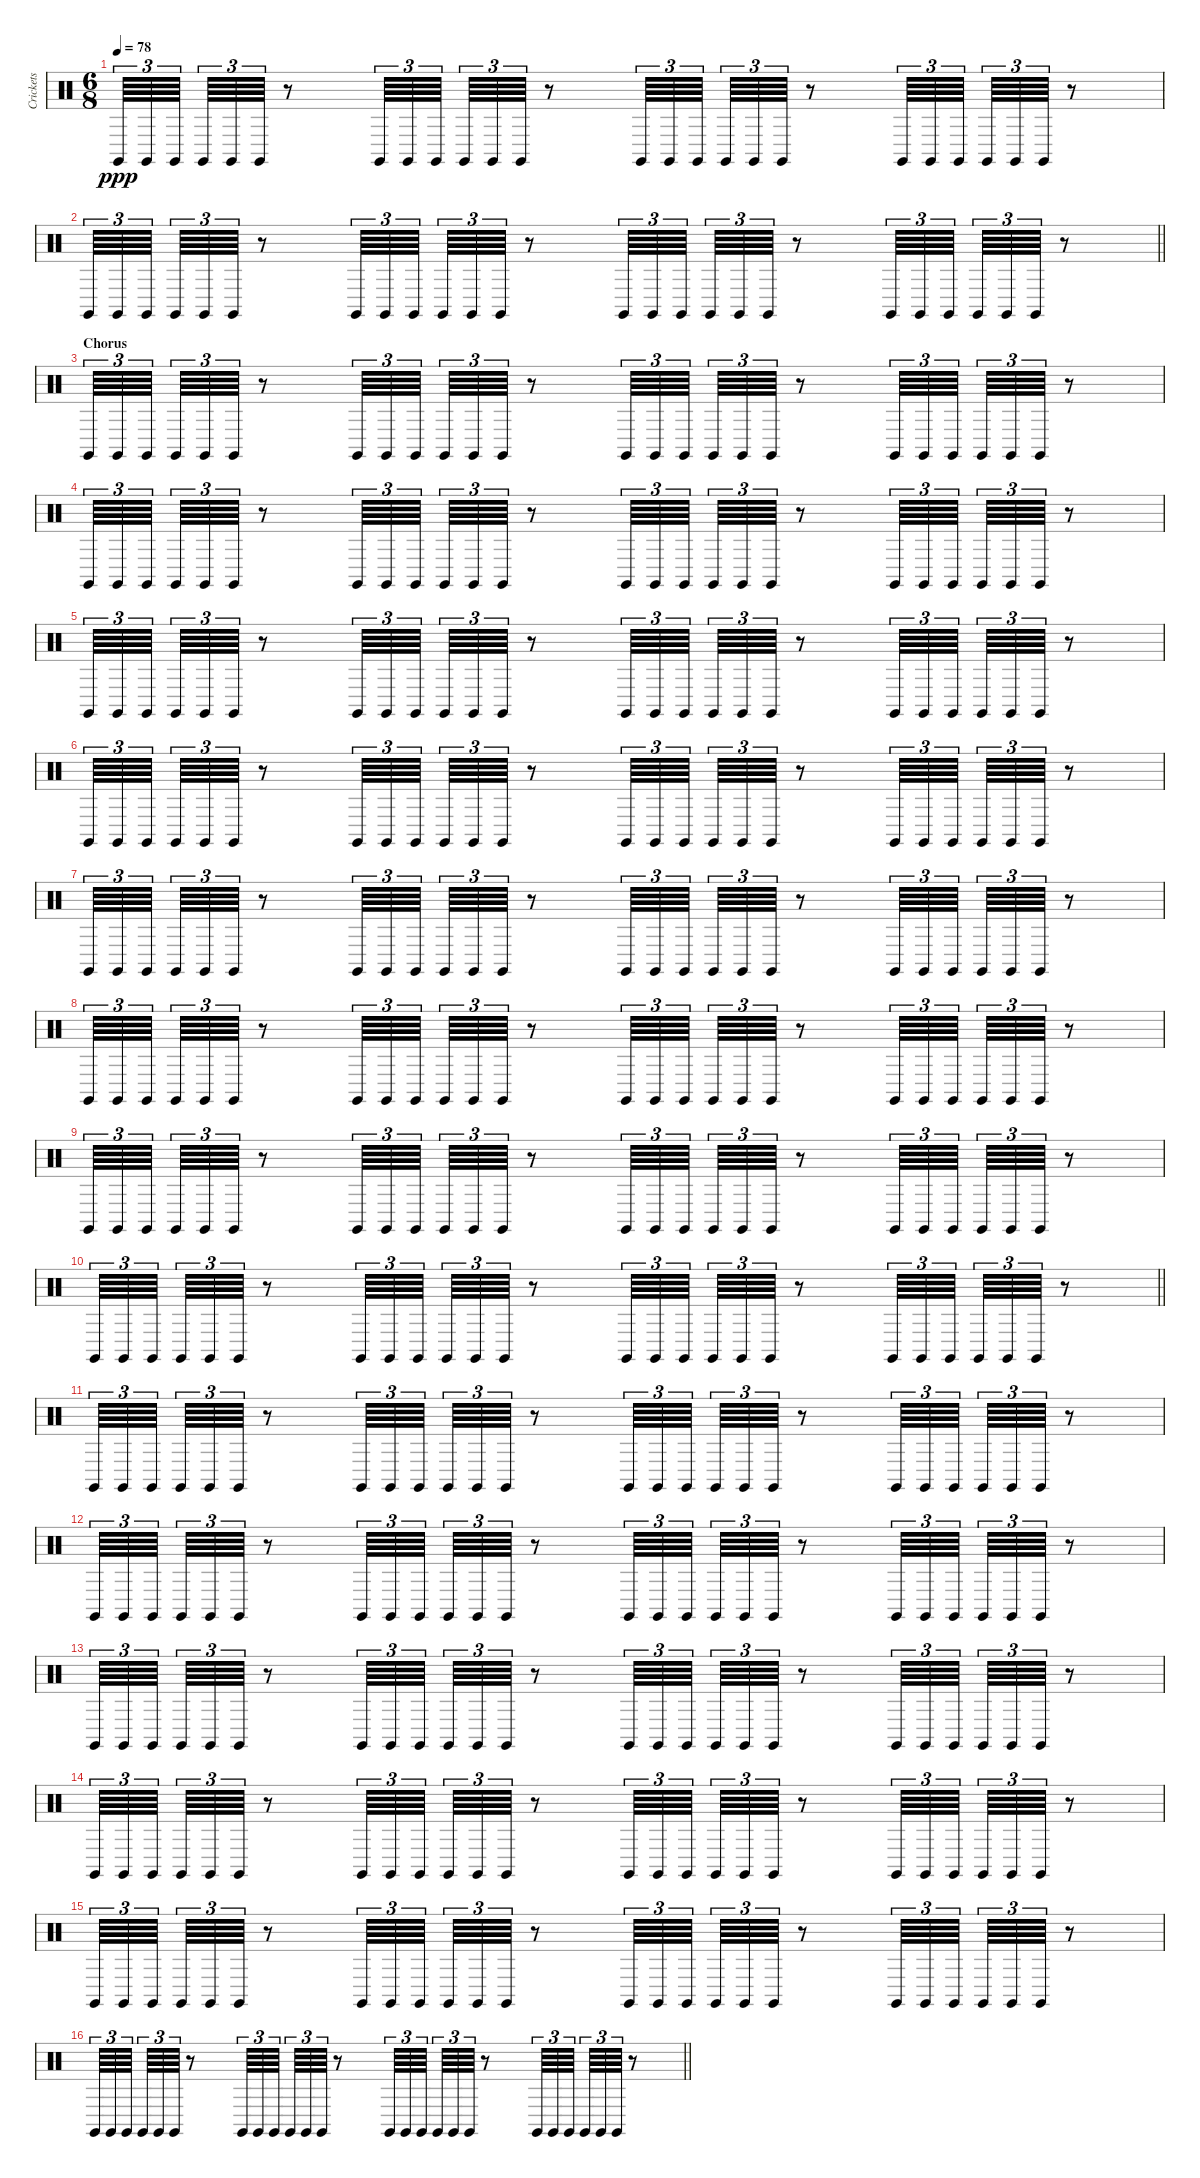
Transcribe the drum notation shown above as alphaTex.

\track ("Crickets" "Crickets") {instrument percussion}
\staff {score}
\articulation defaults
\ts (6 8)
\tempo 78
\clef neutral
\ks c "Claves (hit)".64{tu (3 2) dy ppp} "Claves (hit)".64{tu (3 2)} "Claves (hit)".64{tu (3 2) beam splitsecondary} "Claves (hit)".64{tu (3 2)} "Claves (hit)".64{tu (3 2)} "Claves (hit)".64{tu (3 2)}
r.8 "Claves (hit)".64{tu (3 2)} "Claves (hit)".64{tu (3 2)} "Claves (hit)".64{tu (3 2) beam splitsecondary} "Claves (hit)".64{tu (3 2)} "Claves (hit)".64{tu (3 2)} "Claves (hit)".64{tu (3 2)} r.8 "Claves (hit)".64{tu (3 2)} "Claves (hit)".64{tu (3 2)} "Claves (hit)".64{tu (3 2) beam splitsecondary} "Claves (hit)".64{tu (3 2)} "Claves (hit)".64{tu (3 2)} "Claves (hit)".64{tu (3 2)} r.8 "Claves (hit)".64{tu (3 2)} "Claves (hit)".64{tu (3 2)} "Claves (hit)".64{tu (3 2) beam splitsecondary} "Claves (hit)".64{tu (3 2)} "Claves (hit)".64{tu (3 2)} "Claves (hit)".64{tu (3 2)} r.8 |
\barLineRight lightlight "Claves (hit)".64{tu (3 2)} "Claves (hit)".64{tu (3 2)} "Claves (hit)".64{tu (3 2) beam splitsecondary} "Claves (hit)".64{tu (3 2)} "Claves (hit)".64{tu (3 2)} "Claves (hit)".64{tu (3 2)}
r.8 "Claves (hit)".64{tu (3 2)} "Claves (hit)".64{tu (3 2)} "Claves (hit)".64{tu (3 2) beam splitsecondary} "Claves (hit)".64{tu (3 2)} "Claves (hit)".64{tu (3 2)} "Claves (hit)".64{tu (3 2)} r.8 "Claves (hit)".64{tu (3 2)} "Claves (hit)".64{tu (3 2)} "Claves (hit)".64{tu (3 2) beam splitsecondary} "Claves (hit)".64{tu (3 2)} "Claves (hit)".64{tu (3 2)} "Claves (hit)".64{tu (3 2)} r.8 "Claves (hit)".64{tu (3 2)} "Claves (hit)".64{tu (3 2)} "Claves (hit)".64{tu (3 2) beam splitsecondary} "Claves (hit)".64{tu (3 2)} "Claves (hit)".64{tu (3 2)} "Claves (hit)".64{tu (3 2)} r.8 |
\section ("" "Chorus")
"Claves (hit)".64{tu (3 2)} "Claves (hit)".64{tu (3 2)} "Claves (hit)".64{tu (3 2) beam splitsecondary} "Claves (hit)".64{tu (3 2)} "Claves (hit)".64{tu (3 2)} "Claves (hit)".64{tu (3 2)} r.8 "Claves (hit)".64{tu (3 2)} "Claves (hit)".64{tu (3 2)} "Claves (hit)".64{tu (3 2) beam splitsecondary} "Claves (hit)".64{tu (3 2)} "Claves (hit)".64{tu (3 2)} "Claves (hit)".64{tu (3 2)} r.8 "Claves (hit)".64{tu (3 2)} "Claves (hit)".64{tu (3 2)} "Claves (hit)".64{tu (3 2) beam splitsecondary} "Claves (hit)".64{tu (3 2)} "Claves (hit)".64{tu (3 2)} "Claves (hit)".64{tu (3 2)} r.8 "Claves (hit)".64{tu (3 2)} "Claves (hit)".64{tu (3 2)} "Claves (hit)".64{tu (3 2) beam splitsecondary} "Claves (hit)".64{tu (3 2)} "Claves (hit)".64{tu (3 2)} "Claves (hit)".64{tu (3 2)} r.8 |
"Claves (hit)".64{tu (3 2)} "Claves (hit)".64{tu (3 2)} "Claves (hit)".64{tu (3 2) beam splitsecondary} "Claves (hit)".64{tu (3 2)} "Claves (hit)".64{tu (3 2)} "Claves (hit)".64{tu (3 2)} r.8 "Claves (hit)".64{tu (3 2)} "Claves (hit)".64{tu (3 2)} "Claves (hit)".64{tu (3 2) beam splitsecondary} "Claves (hit)".64{tu (3 2)} "Claves (hit)".64{tu (3 2)} "Claves (hit)".64{tu (3 2)} r.8 "Claves (hit)".64{tu (3 2)} "Claves (hit)".64{tu (3 2)} "Claves (hit)".64{tu (3 2) beam splitsecondary} "Claves (hit)".64{tu (3 2)} "Claves (hit)".64{tu (3 2)} "Claves (hit)".64{tu (3 2)} r.8 "Claves (hit)".64{tu (3 2)} "Claves (hit)".64{tu (3 2)} "Claves (hit)".64{tu (3 2) beam splitsecondary} "Claves (hit)".64{tu (3 2)} "Claves (hit)".64{tu (3 2)} "Claves (hit)".64{tu (3 2)} r.8 |
"Claves (hit)".64{tu (3 2)} "Claves (hit)".64{tu (3 2)} "Claves (hit)".64{tu (3 2) beam splitsecondary} "Claves (hit)".64{tu (3 2)} "Claves (hit)".64{tu (3 2)} "Claves (hit)".64{tu (3 2)} r.8 "Claves (hit)".64{tu (3 2)} "Claves (hit)".64{tu (3 2)} "Claves (hit)".64{tu (3 2) beam splitsecondary} "Claves (hit)".64{tu (3 2)} "Claves (hit)".64{tu (3 2)} "Claves (hit)".64{tu (3 2)} r.8 "Claves (hit)".64{tu (3 2)} "Claves (hit)".64{tu (3 2)} "Claves (hit)".64{tu (3 2) beam splitsecondary} "Claves (hit)".64{tu (3 2)} "Claves (hit)".64{tu (3 2)} "Claves (hit)".64{tu (3 2)} r.8 "Claves (hit)".64{tu (3 2)} "Claves (hit)".64{tu (3 2)} "Claves (hit)".64{tu (3 2) beam splitsecondary} "Claves (hit)".64{tu (3 2)} "Claves (hit)".64{tu (3 2)} "Claves (hit)".64{tu (3 2)} r.8 |
"Claves (hit)".64{tu (3 2)} "Claves (hit)".64{tu (3 2)} "Claves (hit)".64{tu (3 2) beam splitsecondary} "Claves (hit)".64{tu (3 2)} "Claves (hit)".64{tu (3 2)} "Claves (hit)".64{tu (3 2)} r.8 "Claves (hit)".64{tu (3 2)} "Claves (hit)".64{tu (3 2)} "Claves (hit)".64{tu (3 2) beam splitsecondary} "Claves (hit)".64{tu (3 2)} "Claves (hit)".64{tu (3 2)} "Claves (hit)".64{tu (3 2)} r.8 "Claves (hit)".64{tu (3 2)} "Claves (hit)".64{tu (3 2)} "Claves (hit)".64{tu (3 2) beam splitsecondary} "Claves (hit)".64{tu (3 2)} "Claves (hit)".64{tu (3 2)} "Claves (hit)".64{tu (3 2)} r.8 "Claves (hit)".64{tu (3 2)} "Claves (hit)".64{tu (3 2)} "Claves (hit)".64{tu (3 2) beam splitsecondary} "Claves (hit)".64{tu (3 2)} "Claves (hit)".64{tu (3 2)} "Claves (hit)".64{tu (3 2)} r.8 |
"Claves (hit)".64{tu (3 2)} "Claves (hit)".64{tu (3 2)} "Claves (hit)".64{tu (3 2) beam splitsecondary} "Claves (hit)".64{tu (3 2)} "Claves (hit)".64{tu (3 2)} "Claves (hit)".64{tu (3 2)} r.8 "Claves (hit)".64{tu (3 2)} "Claves (hit)".64{tu (3 2)} "Claves (hit)".64{tu (3 2) beam splitsecondary} "Claves (hit)".64{tu (3 2)} "Claves (hit)".64{tu (3 2)} "Claves (hit)".64{tu (3 2)} r.8 "Claves (hit)".64{tu (3 2)} "Claves (hit)".64{tu (3 2)} "Claves (hit)".64{tu (3 2) beam splitsecondary} "Claves (hit)".64{tu (3 2)} "Claves (hit)".64{tu (3 2)} "Claves (hit)".64{tu (3 2)} r.8 "Claves (hit)".64{tu (3 2)} "Claves (hit)".64{tu (3 2)} "Claves (hit)".64{tu (3 2) beam splitsecondary} "Claves (hit)".64{tu (3 2)} "Claves (hit)".64{tu (3 2)} "Claves (hit)".64{tu (3 2)} r.8 |
"Claves (hit)".64{tu (3 2)} "Claves (hit)".64{tu (3 2)} "Claves (hit)".64{tu (3 2) beam splitsecondary} "Claves (hit)".64{tu (3 2)} "Claves (hit)".64{tu (3 2)} "Claves (hit)".64{tu (3 2)} r.8 "Claves (hit)".64{tu (3 2)} "Claves (hit)".64{tu (3 2)} "Claves (hit)".64{tu (3 2) beam splitsecondary} "Claves (hit)".64{tu (3 2)} "Claves (hit)".64{tu (3 2)} "Claves (hit)".64{tu (3 2)} r.8 "Claves (hit)".64{tu (3 2)} "Claves (hit)".64{tu (3 2)} "Claves (hit)".64{tu (3 2) beam splitsecondary} "Claves (hit)".64{tu (3 2)} "Claves (hit)".64{tu (3 2)} "Claves (hit)".64{tu (3 2)} r.8 "Claves (hit)".64{tu (3 2)} "Claves (hit)".64{tu (3 2)} "Claves (hit)".64{tu (3 2) beam splitsecondary} "Claves (hit)".64{tu (3 2)} "Claves (hit)".64{tu (3 2)} "Claves (hit)".64{tu (3 2)} r.8 |
"Claves (hit)".64{tu (3 2)} "Claves (hit)".64{tu (3 2)} "Claves (hit)".64{tu (3 2) beam splitsecondary} "Claves (hit)".64{tu (3 2)} "Claves (hit)".64{tu (3 2)} "Claves (hit)".64{tu (3 2)} r.8 "Claves (hit)".64{tu (3 2)} "Claves (hit)".64{tu (3 2)} "Claves (hit)".64{tu (3 2) beam splitsecondary} "Claves (hit)".64{tu (3 2)} "Claves (hit)".64{tu (3 2)} "Claves (hit)".64{tu (3 2)} r.8 "Claves (hit)".64{tu (3 2)} "Claves (hit)".64{tu (3 2)} "Claves (hit)".64{tu (3 2) beam splitsecondary} "Claves (hit)".64{tu (3 2)} "Claves (hit)".64{tu (3 2)} "Claves (hit)".64{tu (3 2)} r.8 "Claves (hit)".64{tu (3 2)} "Claves (hit)".64{tu (3 2)} "Claves (hit)".64{tu (3 2) beam splitsecondary} "Claves (hit)".64{tu (3 2)} "Claves (hit)".64{tu (3 2)} "Claves (hit)".64{tu (3 2)} r.8 |
\barLineRight lightlight "Claves (hit)".64{tu (3 2)} "Claves (hit)".64{tu (3 2)} "Claves (hit)".64{tu (3 2) beam splitsecondary} "Claves (hit)".64{tu (3 2)} "Claves (hit)".64{tu (3 2)} "Claves (hit)".64{tu (3 2)}
r.8 "Claves (hit)".64{tu (3 2)} "Claves (hit)".64{tu (3 2)} "Claves (hit)".64{tu (3 2) beam splitsecondary} "Claves (hit)".64{tu (3 2)} "Claves (hit)".64{tu (3 2)} "Claves (hit)".64{tu (3 2)} r.8 "Claves (hit)".64{tu (3 2)} "Claves (hit)".64{tu (3 2)} "Claves (hit)".64{tu (3 2) beam splitsecondary} "Claves (hit)".64{tu (3 2)} "Claves (hit)".64{tu (3 2)} "Claves (hit)".64{tu (3 2)} r.8 "Claves (hit)".64{tu (3 2)} "Claves (hit)".64{tu (3 2)} "Claves (hit)".64{tu (3 2) beam splitsecondary} "Claves (hit)".64{tu (3 2)} "Claves (hit)".64{tu (3 2)} "Claves (hit)".64{tu (3 2)} r.8 |
"Claves (hit)".64{tu (3 2)} "Claves (hit)".64{tu (3 2)} "Claves (hit)".64{tu (3 2) beam splitsecondary} "Claves (hit)".64{tu (3 2)} "Claves (hit)".64{tu (3 2)} "Claves (hit)".64{tu (3 2)} r.8 "Claves (hit)".64{tu (3 2)} "Claves (hit)".64{tu (3 2)} "Claves (hit)".64{tu (3 2) beam splitsecondary} "Claves (hit)".64{tu (3 2)} "Claves (hit)".64{tu (3 2)} "Claves (hit)".64{tu (3 2)} r.8 "Claves (hit)".64{tu (3 2)} "Claves (hit)".64{tu (3 2)} "Claves (hit)".64{tu (3 2) beam splitsecondary} "Claves (hit)".64{tu (3 2)} "Claves (hit)".64{tu (3 2)} "Claves (hit)".64{tu (3 2)} r.8 "Claves (hit)".64{tu (3 2)} "Claves (hit)".64{tu (3 2)} "Claves (hit)".64{tu (3 2) beam splitsecondary} "Claves (hit)".64{tu (3 2)} "Claves (hit)".64{tu (3 2)} "Claves (hit)".64{tu (3 2)} r.8 |
"Claves (hit)".64{tu (3 2)} "Claves (hit)".64{tu (3 2)} "Claves (hit)".64{tu (3 2) beam splitsecondary} "Claves (hit)".64{tu (3 2)} "Claves (hit)".64{tu (3 2)} "Claves (hit)".64{tu (3 2)} r.8 "Claves (hit)".64{tu (3 2)} "Claves (hit)".64{tu (3 2)} "Claves (hit)".64{tu (3 2) beam splitsecondary} "Claves (hit)".64{tu (3 2)} "Claves (hit)".64{tu (3 2)} "Claves (hit)".64{tu (3 2)} r.8 "Claves (hit)".64{tu (3 2)} "Claves (hit)".64{tu (3 2)} "Claves (hit)".64{tu (3 2) beam splitsecondary} "Claves (hit)".64{tu (3 2)} "Claves (hit)".64{tu (3 2)} "Claves (hit)".64{tu (3 2)} r.8 "Claves (hit)".64{tu (3 2)} "Claves (hit)".64{tu (3 2)} "Claves (hit)".64{tu (3 2) beam splitsecondary} "Claves (hit)".64{tu (3 2)} "Claves (hit)".64{tu (3 2)} "Claves (hit)".64{tu (3 2)} r.8 |
"Claves (hit)".64{tu (3 2)} "Claves (hit)".64{tu (3 2)} "Claves (hit)".64{tu (3 2) beam splitsecondary} "Claves (hit)".64{tu (3 2)} "Claves (hit)".64{tu (3 2)} "Claves (hit)".64{tu (3 2)} r.8 "Claves (hit)".64{tu (3 2)} "Claves (hit)".64{tu (3 2)} "Claves (hit)".64{tu (3 2) beam splitsecondary} "Claves (hit)".64{tu (3 2)} "Claves (hit)".64{tu (3 2)} "Claves (hit)".64{tu (3 2)} r.8 "Claves (hit)".64{tu (3 2)} "Claves (hit)".64{tu (3 2)} "Claves (hit)".64{tu (3 2) beam splitsecondary} "Claves (hit)".64{tu (3 2)} "Claves (hit)".64{tu (3 2)} "Claves (hit)".64{tu (3 2)} r.8 "Claves (hit)".64{tu (3 2)} "Claves (hit)".64{tu (3 2)} "Claves (hit)".64{tu (3 2) beam splitsecondary} "Claves (hit)".64{tu (3 2)} "Claves (hit)".64{tu (3 2)} "Claves (hit)".64{tu (3 2)} r.8 |
"Claves (hit)".64{tu (3 2)} "Claves (hit)".64{tu (3 2)} "Claves (hit)".64{tu (3 2) beam splitsecondary} "Claves (hit)".64{tu (3 2)} "Claves (hit)".64{tu (3 2)} "Claves (hit)".64{tu (3 2)} r.8 "Claves (hit)".64{tu (3 2)} "Claves (hit)".64{tu (3 2)} "Claves (hit)".64{tu (3 2) beam splitsecondary} "Claves (hit)".64{tu (3 2)} "Claves (hit)".64{tu (3 2)} "Claves (hit)".64{tu (3 2)} r.8 "Claves (hit)".64{tu (3 2)} "Claves (hit)".64{tu (3 2)} "Claves (hit)".64{tu (3 2) beam splitsecondary} "Claves (hit)".64{tu (3 2)} "Claves (hit)".64{tu (3 2)} "Claves (hit)".64{tu (3 2)} r.8 "Claves (hit)".64{tu (3 2)} "Claves (hit)".64{tu (3 2)} "Claves (hit)".64{tu (3 2) beam splitsecondary} "Claves (hit)".64{tu (3 2)} "Claves (hit)".64{tu (3 2)} "Claves (hit)".64{tu (3 2)} r.8 |
"Claves (hit)".64{tu (3 2)} "Claves (hit)".64{tu (3 2)} "Claves (hit)".64{tu (3 2) beam splitsecondary} "Claves (hit)".64{tu (3 2)} "Claves (hit)".64{tu (3 2)} "Claves (hit)".64{tu (3 2)} r.8 "Claves (hit)".64{tu (3 2)} "Claves (hit)".64{tu (3 2)} "Claves (hit)".64{tu (3 2) beam splitsecondary} "Claves (hit)".64{tu (3 2)} "Claves (hit)".64{tu (3 2)} "Claves (hit)".64{tu (3 2)} r.8 "Claves (hit)".64{tu (3 2)} "Claves (hit)".64{tu (3 2)} "Claves (hit)".64{tu (3 2) beam splitsecondary} "Claves (hit)".64{tu (3 2)} "Claves (hit)".64{tu (3 2)} "Claves (hit)".64{tu (3 2)} r.8 "Claves (hit)".64{tu (3 2)} "Claves (hit)".64{tu (3 2)} "Claves (hit)".64{tu (3 2) beam splitsecondary} "Claves (hit)".64{tu (3 2)} "Claves (hit)".64{tu (3 2)} "Claves (hit)".64{tu (3 2)} r.8 |
\barLineRight lightlight "Claves (hit)".64{tu (3 2)} "Claves (hit)".64{tu (3 2)} "Claves (hit)".64{tu (3 2) beam splitsecondary} "Claves (hit)".64{tu (3 2)} "Claves (hit)".64{tu (3 2)} "Claves (hit)".64{tu (3 2)}
r.8 "Claves (hit)".64{tu (3 2)} "Claves (hit)".64{tu (3 2)} "Claves (hit)".64{tu (3 2) beam splitsecondary} "Claves (hit)".64{tu (3 2)} "Claves (hit)".64{tu (3 2)} "Claves (hit)".64{tu (3 2)} r.8 "Claves (hit)".64{tu (3 2)} "Claves (hit)".64{tu (3 2)} "Claves (hit)".64{tu (3 2) beam splitsecondary} "Claves (hit)".64{tu (3 2)} "Claves (hit)".64{tu (3 2)} "Claves (hit)".64{tu (3 2)} r.8 "Claves (hit)".64{tu (3 2)} "Claves (hit)".64{tu (3 2)} "Claves (hit)".64{tu (3 2) beam splitsecondary} "Claves (hit)".64{tu (3 2)} "Claves (hit)".64{tu (3 2)} "Claves (hit)".64{tu (3 2)} r.8
